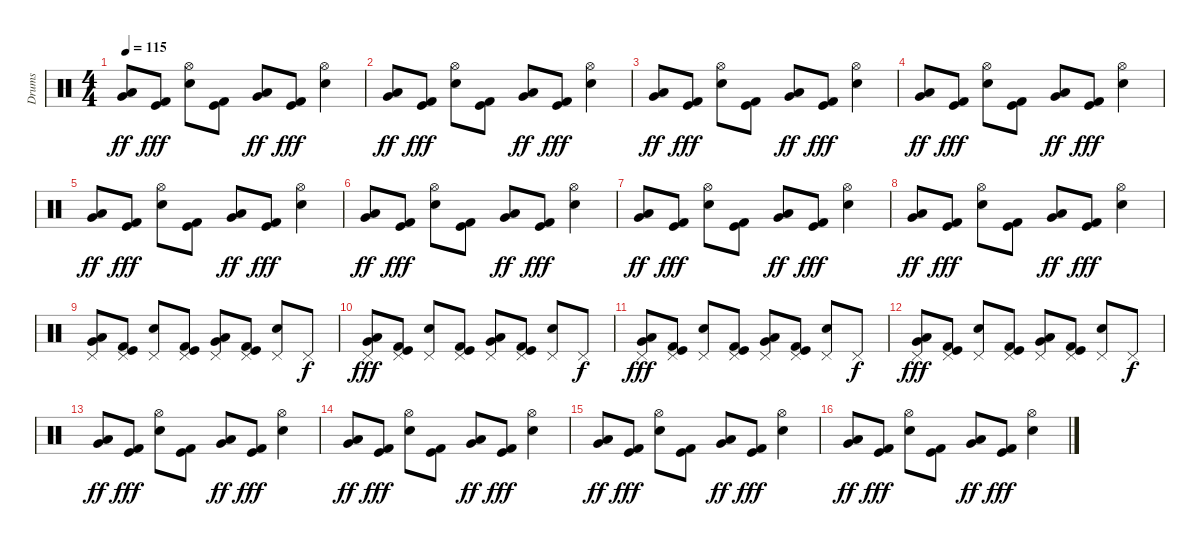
\track ("Drums" "Drums") {instrument percussion}
\staff {score}
\articulation defaults
\ts (4 4)
\tempo 115
\clef neutral
\ks c
("Low Tom (hit)" "Very Low Tom (hit)").8{bd 120 dy ff} ("Kick (hit)" "Kick (hit) 2").8{dy fff} ("Hi-Hat (open)" "Electric Snare (hit)").8 ("Kick (hit)" "Kick (hit) 2").8 ("Low Tom (hit)" "Very Low Tom (hit)").8{bd 120 dy ff} ("Kick (hit)" "Kick (hit) 2").8{dy fff} ("Hi-Hat (open)" "Electric Snare (hit)").4 |
("Low Tom (hit)" "Very Low Tom (hit)").8{bd 120 dy ff} ("Kick (hit)" "Kick (hit) 2").8{dy fff} ("Hi-Hat (open)" "Electric Snare (hit)").8 ("Kick (hit)" "Kick (hit) 2").8 ("Low Tom (hit)" "Very Low Tom (hit)").8{bd 120 dy ff} ("Kick (hit)" "Kick (hit) 2").8{dy fff} ("Hi-Hat (open)" "Electric Snare (hit)").4 |
("Low Tom (hit)" "Very Low Tom (hit)").8{bd 120 dy ff} ("Kick (hit)" "Kick (hit) 2").8{dy fff} ("Hi-Hat (open)" "Electric Snare (hit)").8 ("Kick (hit)" "Kick (hit) 2").8 ("Low Tom (hit)" "Very Low Tom (hit)").8{bd 120 dy ff} ("Kick (hit)" "Kick (hit) 2").8{dy fff} ("Hi-Hat (open)" "Electric Snare (hit)").4 |
("Low Tom (hit)" "Very Low Tom (hit)").8{bd 120 dy ff} ("Kick (hit)" "Kick (hit) 2").8{dy fff} ("Hi-Hat (open)" "Electric Snare (hit)").8 ("Kick (hit)" "Kick (hit) 2").8 ("Low Tom (hit)" "Very Low Tom (hit)").8{bd 120 dy ff} ("Kick (hit)" "Kick (hit) 2").8{dy fff} ("Hi-Hat (open)" "Electric Snare (hit)").4 |
("Low Tom (hit)" "Very Low Tom (hit)").8{bd 120 dy ff} ("Kick (hit)" "Kick (hit) 2").8{dy fff} ("Hi-Hat (open)" "Electric Snare (hit)").8 ("Kick (hit)" "Kick (hit) 2").8 ("Low Tom (hit)" "Very Low Tom (hit)").8{bd 120 dy ff} ("Kick (hit)" "Kick (hit) 2").8{dy fff} ("Hi-Hat (open)" "Electric Snare (hit)").4 |
("Low Tom (hit)" "Very Low Tom (hit)").8{bd 120 dy ff} ("Kick (hit)" "Kick (hit) 2").8{dy fff} ("Hi-Hat (open)" "Electric Snare (hit)").8 ("Kick (hit)" "Kick (hit) 2").8 ("Low Tom (hit)" "Very Low Tom (hit)").8{bd 120 dy ff} ("Kick (hit)" "Kick (hit) 2").8{dy fff} ("Hi-Hat (open)" "Electric Snare (hit)").4 |
("Low Tom (hit)" "Very Low Tom (hit)").8{bd 120 dy ff} ("Kick (hit)" "Kick (hit) 2").8{dy fff} ("Hi-Hat (open)" "Electric Snare (hit)").8 ("Kick (hit)" "Kick (hit) 2").8 ("Low Tom (hit)" "Very Low Tom (hit)").8{bd 120 dy ff} ("Kick (hit)" "Kick (hit) 2").8{dy fff} ("Hi-Hat (open)" "Electric Snare (hit)").4 |
("Low Tom (hit)" "Very Low Tom (hit)").8{bd 60 dy ff} ("Kick (hit)" "Kick (hit) 2").8{dy fff} ("Hi-Hat (open)" "Electric Snare (hit)").8 ("Kick (hit)" "Kick (hit) 2").8 ("Low Tom (hit)" "Very Low Tom (hit)").8{bd 60 dy ff} ("Kick (hit)" "Kick (hit) 2").8{dy fff} ("Hi-Hat (open)" "Electric Snare (hit)").4 |
("Pedal Hi-Hat (hit)" "Low Tom (hit)" "Very Low Tom (hit)").8{bd 120} ("Pedal Hi-Hat (hit)" "Kick (hit)" "Kick (hit) 2").8 ("Pedal Hi-Hat (hit)" "Electric Snare (hit)").8 ("Pedal Hi-Hat (hit)" "Kick (hit)" "Kick (hit) 2").8 ("Pedal Hi-Hat (hit)" "Low Tom (hit)" "Very Low Tom (hit)").8{bd 120} ("Pedal Hi-Hat (hit)" "Kick (hit)" "Kick (hit) 2").8 ("Pedal Hi-Hat (hit)" "Electric Snare (hit)").8 "Pedal Hi-Hat (hit)".8{dy f} |
("Pedal Hi-Hat (hit)" "Low Tom (hit)" "Very Low Tom (hit)").8{bd 120 dy fff} ("Pedal Hi-Hat (hit)" "Kick (hit)" "Kick (hit) 2").8 ("Pedal Hi-Hat (hit)" "Electric Snare (hit)").8 ("Pedal Hi-Hat (hit)" "Kick (hit)" "Kick (hit) 2").8 ("Pedal Hi-Hat (hit)" "Low Tom (hit)" "Very Low Tom (hit)").8{bd 120} ("Pedal Hi-Hat (hit)" "Kick (hit)" "Kick (hit) 2").8 ("Pedal Hi-Hat (hit)" "Electric Snare (hit)").8 "Pedal Hi-Hat (hit)".8{dy f} |
("Pedal Hi-Hat (hit)" "Low Tom (hit)" "Very Low Tom (hit)").8{bd 120 dy fff} ("Pedal Hi-Hat (hit)" "Kick (hit)" "Kick (hit) 2").8 ("Pedal Hi-Hat (hit)" "Electric Snare (hit)").8 ("Pedal Hi-Hat (hit)" "Kick (hit)" "Kick (hit) 2").8 ("Pedal Hi-Hat (hit)" "Low Tom (hit)" "Very Low Tom (hit)").8{bd 120} ("Pedal Hi-Hat (hit)" "Kick (hit)" "Kick (hit) 2").8 ("Pedal Hi-Hat (hit)" "Electric Snare (hit)").8 "Pedal Hi-Hat (hit)".8{dy f} |
("Pedal Hi-Hat (hit)" "Low Tom (hit)" "Very Low Tom (hit)").8{bd 120 dy fff} ("Pedal Hi-Hat (hit)" "Kick (hit)" "Kick (hit) 2").8 ("Pedal Hi-Hat (hit)" "Electric Snare (hit)").8 ("Pedal Hi-Hat (hit)" "Kick (hit)" "Kick (hit) 2").8 ("Pedal Hi-Hat (hit)" "Low Tom (hit)" "Very Low Tom (hit)").8{bd 120} ("Pedal Hi-Hat (hit)" "Kick (hit)" "Kick (hit) 2").8 ("Pedal Hi-Hat (hit)" "Electric Snare (hit)").8 "Pedal Hi-Hat (hit)".8{dy f} |
("Low Tom (hit)" "Very Low Tom (hit)").8{bd 120 dy ff} ("Kick (hit)" "Kick (hit) 2").8{dy fff} ("Hi-Hat (open)" "Electric Snare (hit)").8 ("Kick (hit)" "Kick (hit) 2").8 ("Low Tom (hit)" "Very Low Tom (hit)").8{bd 120 dy ff} ("Kick (hit)" "Kick (hit) 2").8{dy fff} ("Hi-Hat (open)" "Electric Snare (hit)").4 |
("Low Tom (hit)" "Very Low Tom (hit)").8{bd 120 dy ff} ("Kick (hit)" "Kick (hit) 2").8{dy fff} ("Hi-Hat (open)" "Electric Snare (hit)").8 ("Kick (hit)" "Kick (hit) 2").8 ("Low Tom (hit)" "Very Low Tom (hit)").8{bd 120 dy ff} ("Kick (hit)" "Kick (hit) 2").8{dy fff} ("Hi-Hat (open)" "Electric Snare (hit)").4 |
("Low Tom (hit)" "Very Low Tom (hit)").8{bd 120 dy ff} ("Kick (hit)" "Kick (hit) 2").8{dy fff} ("Hi-Hat (open)" "Electric Snare (hit)").8 ("Kick (hit)" "Kick (hit) 2").8 ("Low Tom (hit)" "Very Low Tom (hit)").8{bd 120 dy ff} ("Kick (hit)" "Kick (hit) 2").8{dy fff} ("Hi-Hat (open)" "Electric Snare (hit)").4 |
("Low Tom (hit)" "Very Low Tom (hit)").8{bd 120 dy ff} ("Kick (hit)" "Kick (hit) 2").8{dy fff} ("Hi-Hat (open)" "Electric Snare (hit)").8 ("Kick (hit)" "Kick (hit) 2").8 ("Low Tom (hit)" "Very Low Tom (hit)").8{bd 120 dy ff} ("Kick (hit)" "Kick (hit) 2").8{dy fff} ("Hi-Hat (open)" "Electric Snare (hit)").4
